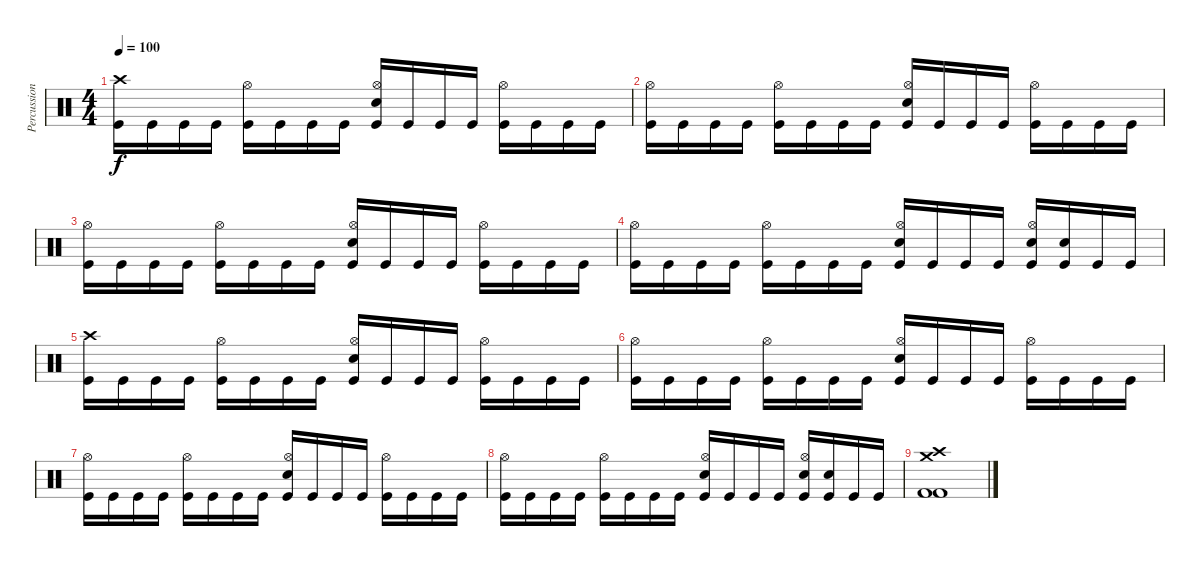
\track ("Percussion" "Percussion") {instrument percussion}
\staff {score}
\articulation defaults
\ts (4 4)
\tempo 100
\clef neutral
\ks c
("Crash high (hit)" "Kick (hit)").16{dy f} "Kick (hit)".16 "Kick (hit)".16 "Kick (hit)".16 ("Hi-Hat (open)" "Kick (hit)").16 "Kick (hit)".16 "Kick (hit)".16 "Kick (hit)".16 ("Hi-Hat (open)" "Snare (hit) 2" "Kick (hit)").16 "Kick (hit)".16 "Kick (hit)".16 "Kick (hit)".16 ("Hi-Hat (open)" "Kick (hit)").16 "Kick (hit)".16 "Kick (hit)".16 "Kick (hit)".16 |
("Hi-Hat (open)" "Kick (hit)").16 "Kick (hit)".16 "Kick (hit)".16 "Kick (hit)".16 ("Hi-Hat (open)" "Kick (hit)").16 "Kick (hit)".16 "Kick (hit)".16 "Kick (hit)".16 ("Hi-Hat (open)" "Snare (hit) 2" "Kick (hit)").16 "Kick (hit)".16 "Kick (hit)".16 "Kick (hit)".16 ("Hi-Hat (open)" "Kick (hit)").16 "Kick (hit)".16 "Kick (hit)".16 "Kick (hit)".16 |
("Hi-Hat (open)" "Kick (hit)").16 "Kick (hit)".16 "Kick (hit)".16 "Kick (hit)".16 ("Hi-Hat (open)" "Kick (hit)").16 "Kick (hit)".16 "Kick (hit)".16 "Kick (hit)".16 ("Hi-Hat (open)" "Snare (hit) 2" "Kick (hit)").16 "Kick (hit)".16 "Kick (hit)".16 "Kick (hit)".16 ("Hi-Hat (open)" "Kick (hit)").16 "Kick (hit)".16 "Kick (hit)".16 "Kick (hit)".16 |
("Hi-Hat (open)" "Kick (hit)").16 "Kick (hit)".16 "Kick (hit)".16 "Kick (hit)".16 ("Hi-Hat (open)" "Kick (hit)").16 "Kick (hit)".16 "Kick (hit)".16 "Kick (hit)".16 ("Hi-Hat (open)" "Snare (hit) 2" "Kick (hit)").16 "Kick (hit)".16 "Kick (hit)".16 "Kick (hit)".16 ("Hi-Hat (open)" "Snare (hit) 2" "Kick (hit)").16 ("Snare (hit) 2" "Kick (hit)").16 "Kick (hit)".16 "Kick (hit)".16 |
("Crash high (hit)" "Kick (hit)").16 "Kick (hit)".16 "Kick (hit)".16 "Kick (hit)".16 ("Hi-Hat (open)" "Kick (hit)").16 "Kick (hit)".16 "Kick (hit)".16 "Kick (hit)".16 ("Hi-Hat (open)" "Snare (hit) 2" "Kick (hit)").16 "Kick (hit)".16 "Kick (hit)".16 "Kick (hit)".16 ("Hi-Hat (open)" "Kick (hit)").16 "Kick (hit)".16 "Kick (hit)".16 "Kick (hit)".16 |
("Hi-Hat (open)" "Kick (hit)").16 "Kick (hit)".16 "Kick (hit)".16 "Kick (hit)".16 ("Hi-Hat (open)" "Kick (hit)").16 "Kick (hit)".16 "Kick (hit)".16 "Kick (hit)".16 ("Hi-Hat (open)" "Snare (hit) 2" "Kick (hit)").16 "Kick (hit)".16 "Kick (hit)".16 "Kick (hit)".16 ("Hi-Hat (open)" "Kick (hit)").16 "Kick (hit)".16 "Kick (hit)".16 "Kick (hit)".16 |
("Hi-Hat (open)" "Kick (hit)").16 "Kick (hit)".16 "Kick (hit)".16 "Kick (hit)".16 ("Hi-Hat (open)" "Kick (hit)").16 "Kick (hit)".16 "Kick (hit)".16 "Kick (hit)".16 ("Hi-Hat (open)" "Snare (hit) 2" "Kick (hit)").16 "Kick (hit)".16 "Kick (hit)".16 "Kick (hit)".16 ("Hi-Hat (open)" "Kick (hit)").16 "Kick (hit)".16 "Kick (hit)".16 "Kick (hit)".16 |
("Hi-Hat (open)" "Kick (hit)").16 "Kick (hit)".16 "Kick (hit)".16 "Kick (hit)".16 ("Hi-Hat (open)" "Kick (hit)").16 "Kick (hit)".16 "Kick (hit)".16 "Kick (hit)".16 ("Hi-Hat (open)" "Snare (hit) 2" "Kick (hit)").16 "Kick (hit)".16 "Kick (hit)".16 "Kick (hit)".16 ("Hi-Hat (open)" "Snare (hit) 2" "Kick (hit)").16 ("Snare (hit) 2" "Kick (hit)").16 "Kick (hit)".16 "Kick (hit)".16 |
("Crash medium (hit)" "Crash high (hit)" "Kick (hit) 2" "Kick (hit) 2").1
